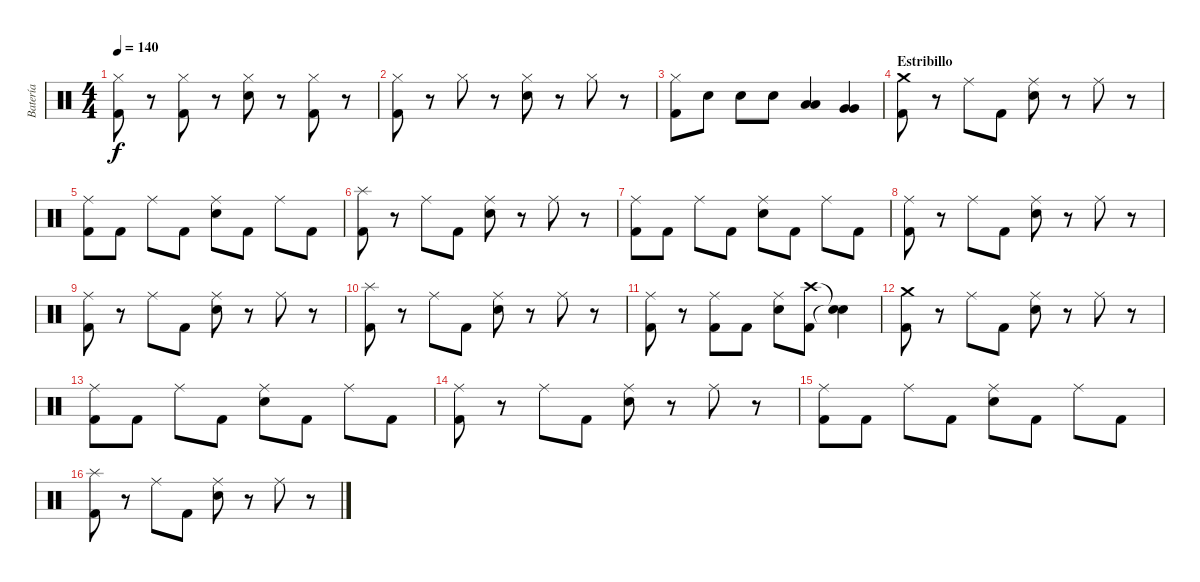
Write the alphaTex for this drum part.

\track ("Batería" "Batería") {instrument percussion}
\staff {score}
\articulation defaults
\ts (4 4)
\tempo 140
\clef neutral
\ks c
("Hi-Hat (closed)" "Kick (hit) 2").8{dy f} r.8 ("Hi-Hat (closed)" "Kick (hit) 2").8 r.8 ("Hi-Hat (closed)" "Snare (hit) 2").8 r.8 ("Hi-Hat (closed)" "Kick (hit) 2").8 r.8 |
("Hi-Hat (closed)" "Kick (hit) 2").8 r.8 "Hi-Hat (closed)".8 r.8 ("Hi-Hat (closed)" "Snare (hit) 2").8 r.8 "Hi-Hat (closed)".8 r.8 |
("Hi-Hat (closed)" "Kick (hit) 2").8 "Snare (hit) 2".8 "Snare (hit) 2".8 "Snare (hit) 2".8 ("Low Tom (hit)" "Low Tom (hit)").4 ("Very Low Tom (hit)" "Very Low Tom (hit)").4 |
\section ("" "Estribillo")
("Crash medium (hit)" "Kick (hit) 2").8 r.8 "Ride (middle)".8 "Kick (hit) 2".8 ("Ride (middle)" "Snare (hit) 2").8 r.8 "Ride (middle)".8 r.8 |
("Ride (middle)" "Kick (hit) 2").8 "Kick (hit) 2".8 "Ride (middle)".8 "Kick (hit) 2".8 ("Ride (middle)" "Snare (hit) 2").8 "Kick (hit) 2".8 "Ride (middle)".8 "Kick (hit) 2".8 |
("Splash (hit)" "Kick (hit) 2").8 r.8 "Ride (middle)".8 "Kick (hit) 2".8 ("Ride (middle)" "Snare (hit) 2").8 r.8 "Ride (middle)".8 r.8 |
("Ride (middle)" "Kick (hit) 2").8 "Kick (hit) 2".8 "Ride (middle)".8 "Kick (hit) 2".8 ("Ride (middle)" "Snare (hit) 2").8 "Kick (hit) 2".8 "Ride (middle)".8 "Kick (hit) 2".8 |
("Ride (middle)" "Kick (hit) 2").8 r.8 "Ride (middle)".8 "Kick (hit) 2".8 ("Ride (middle)" "Snare (hit) 2").8 r.8 "Ride (middle)".8 r.8 |
("Ride (middle)" "Kick (hit) 2").8 r.8 "Ride (middle)".8 "Kick (hit) 2".8 ("Ride (middle)" "Snare (hit) 2").8 r.8 "Ride (middle)".8 r.8 |
("Splash (hit)" "Kick (hit) 2").8 r.8 "Ride (middle)".8 "Kick (hit) 2".8 ("Ride (middle)" "Snare (hit) 2").8 r.8 "Ride (middle)".8 r.8 |
("Ride (middle)" "Kick (hit) 2").8 r.8 ("Ride (middle)" "Kick (hit) 2").8 "Kick (hit) 2".8 ("Ride (middle)" "Snare (hit) 2").8 ("Crash high (hit)" "Kick (hit) 2").8 ("Snare (hit)"{t} "Snare (hit)"{t}).4 |
("Crash medium (hit)" "Kick (hit) 2").8 r.8 "Ride (middle)".8 "Kick (hit) 2".8 ("Ride (middle)" "Snare (hit) 2").8 r.8 "Ride (middle)".8 r.8 |
("Ride (middle)" "Kick (hit) 2").8 "Kick (hit) 2".8 "Ride (middle)".8 "Kick (hit) 2".8 ("Ride (middle)" "Snare (hit) 2").8 "Kick (hit) 2".8 "Ride (middle)".8 "Kick (hit) 2".8 |
("Ride (middle)" "Kick (hit) 2").8 r.8 "Ride (middle)".8 "Kick (hit) 2".8 ("Ride (middle)" "Snare (hit) 2").8 r.8 "Ride (middle)".8 r.8 |
("Ride (middle)" "Kick (hit) 2").8 "Kick (hit) 2".8 "Ride (middle)".8 "Kick (hit) 2".8 ("Ride (middle)" "Snare (hit) 2").8 "Kick (hit) 2".8 "Ride (middle)".8 "Kick (hit) 2".8 |
("Splash (hit)" "Kick (hit) 2").8 r.8 "Ride (middle)".8 "Kick (hit) 2".8 ("Ride (middle)" "Snare (hit) 2").8 r.8 "Ride (middle)".8 r.8
